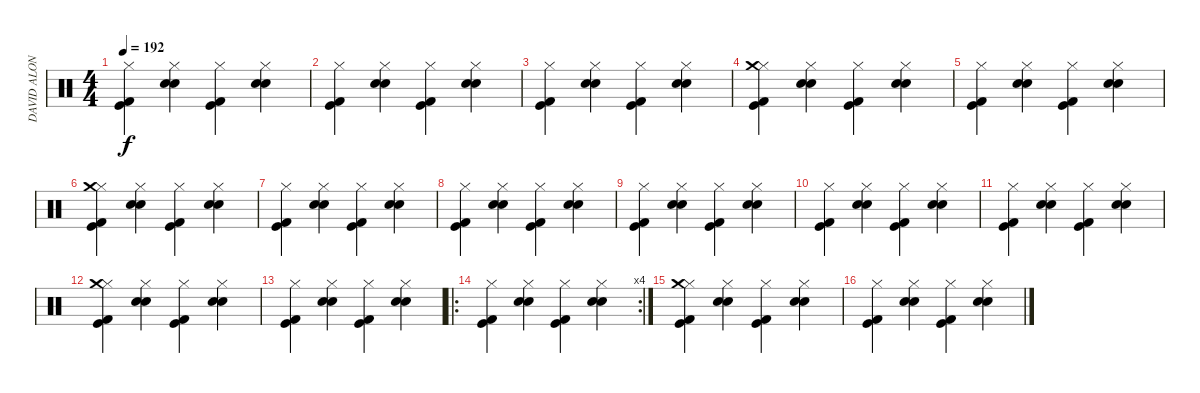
\track ("DAVID ALONSO" "DAVID ALON") {instrument percussion}
\staff {score}
\articulation defaults
\ts (4 4)
\tempo 192
\clef neutral
\ks c
("Kick (hit)" "Kick (hit) 2" "Hi-Hat (closed)").4{dy f} ("Electric Snare (hit)" "Snare (hit) 2" "Hi-Hat (closed)").4 ("Kick (hit)" "Kick (hit) 2" "Hi-Hat (closed)").4 ("Electric Snare (hit)" "Snare (hit) 2" "Hi-Hat (closed)").4 |
("Kick (hit)" "Kick (hit) 2" "Hi-Hat (closed)").4 ("Electric Snare (hit)" "Snare (hit) 2" "Hi-Hat (closed)").4 ("Kick (hit)" "Kick (hit) 2" "Hi-Hat (closed)").4 ("Electric Snare (hit)" "Snare (hit) 2" "Hi-Hat (closed)").4 |
("Kick (hit)" "Kick (hit) 2" "Hi-Hat (closed)").4 ("Electric Snare (hit)" "Snare (hit) 2" "Hi-Hat (closed)").4 ("Kick (hit)" "Kick (hit) 2" "Hi-Hat (closed)").4 ("Electric Snare (hit)" "Snare (hit) 2" "Hi-Hat (closed)").4 |
("Kick (hit)" "Kick (hit) 2" "Hi-Hat (closed)" "Crash medium (hit)").4 ("Electric Snare (hit)" "Snare (hit) 2" "Hi-Hat (closed)").4 ("Kick (hit)" "Kick (hit) 2" "Hi-Hat (closed)").4 ("Electric Snare (hit)" "Snare (hit) 2" "Hi-Hat (closed)").4 |
("Kick (hit)" "Kick (hit) 2" "Hi-Hat (closed)").4 ("Electric Snare (hit)" "Snare (hit) 2" "Hi-Hat (closed)").4 ("Kick (hit)" "Kick (hit) 2" "Hi-Hat (closed)").4 ("Electric Snare (hit)" "Snare (hit) 2" "Hi-Hat (closed)").4 |
("Kick (hit)" "Kick (hit) 2" "Hi-Hat (closed)" "Crash medium (hit)").4 ("Electric Snare (hit)" "Snare (hit) 2" "Hi-Hat (closed)").4 ("Kick (hit)" "Kick (hit) 2" "Hi-Hat (closed)").4 ("Electric Snare (hit)" "Snare (hit) 2" "Hi-Hat (closed)").4 |
("Kick (hit)" "Kick (hit) 2" "Hi-Hat (closed)").4 ("Electric Snare (hit)" "Snare (hit) 2" "Hi-Hat (closed)").4 ("Kick (hit)" "Kick (hit) 2" "Hi-Hat (closed)").4 ("Electric Snare (hit)" "Snare (hit) 2" "Hi-Hat (closed)").4 |
("Kick (hit)" "Kick (hit) 2" "Hi-Hat (closed)").4 ("Electric Snare (hit)" "Snare (hit) 2" "Hi-Hat (closed)").4 ("Kick (hit)" "Kick (hit) 2" "Hi-Hat (closed)").4 ("Electric Snare (hit)" "Snare (hit) 2" "Hi-Hat (closed)").4 |
("Kick (hit)" "Kick (hit) 2" "Hi-Hat (closed)").4 ("Electric Snare (hit)" "Snare (hit) 2" "Hi-Hat (closed)").4 ("Kick (hit)" "Kick (hit) 2" "Hi-Hat (closed)").4 ("Electric Snare (hit)" "Snare (hit) 2" "Hi-Hat (closed)").4 |
("Kick (hit)" "Kick (hit) 2" "Hi-Hat (closed)").4 ("Electric Snare (hit)" "Snare (hit) 2" "Hi-Hat (closed)").4 ("Kick (hit)" "Kick (hit) 2" "Hi-Hat (closed)").4 ("Electric Snare (hit)" "Snare (hit) 2" "Hi-Hat (closed)").4 |
("Kick (hit)" "Kick (hit) 2" "Hi-Hat (closed)").4 ("Electric Snare (hit)" "Snare (hit) 2" "Hi-Hat (closed)").4 ("Kick (hit)" "Kick (hit) 2" "Hi-Hat (closed)").4 ("Electric Snare (hit)" "Snare (hit) 2" "Hi-Hat (closed)").4 |
("Kick (hit)" "Kick (hit) 2" "Hi-Hat (closed)" "Crash medium (hit)").4 ("Electric Snare (hit)" "Snare (hit) 2" "Hi-Hat (closed)").4 ("Kick (hit)" "Kick (hit) 2" "Hi-Hat (closed)").4 ("Electric Snare (hit)" "Snare (hit) 2" "Hi-Hat (closed)").4 |
("Kick (hit)" "Kick (hit) 2" "Hi-Hat (closed)").4 ("Electric Snare (hit)" "Snare (hit) 2" "Hi-Hat (closed)").4 ("Kick (hit)" "Kick (hit) 2" "Hi-Hat (closed)").4 ("Electric Snare (hit)" "Snare (hit) 2" "Hi-Hat (closed)").4 |
\ro
\rc 4
("Kick (hit)" "Kick (hit) 2" "Hi-Hat (closed)").4 ("Electric Snare (hit)" "Snare (hit) 2" "Hi-Hat (closed)").4 ("Kick (hit)" "Kick (hit) 2" "Hi-Hat (closed)").4 ("Electric Snare (hit)" "Snare (hit) 2" "Hi-Hat (closed)").4 |
("Kick (hit)" "Kick (hit) 2" "Hi-Hat (closed)" "Crash medium (hit)").4 ("Electric Snare (hit)" "Snare (hit) 2" "Hi-Hat (closed)").4 ("Kick (hit)" "Kick (hit) 2" "Hi-Hat (closed)").4 ("Electric Snare (hit)" "Snare (hit) 2" "Hi-Hat (closed)").4 |
("Kick (hit)" "Kick (hit) 2" "Hi-Hat (closed)").4 ("Electric Snare (hit)" "Snare (hit) 2" "Hi-Hat (closed)").4 ("Kick (hit)" "Kick (hit) 2" "Hi-Hat (closed)").4 ("Electric Snare (hit)" "Snare (hit) 2" "Hi-Hat (closed)").4
